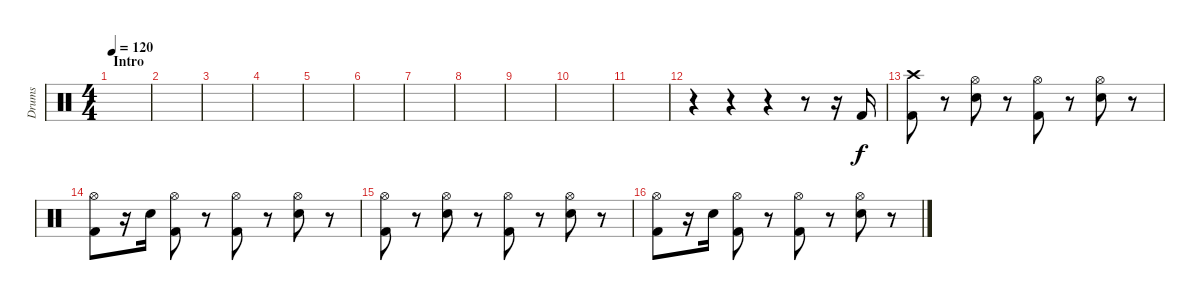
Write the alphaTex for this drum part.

\track ("Drums" "Drums") {instrument percussion}
\staff {score}
\articulation defaults
\ts (4 4)
\section ("" "Intro")
\tempo 120
\clef neutral
\ks c
|
|
|
|
|
|
|
|
|
|
|
r.4 r.4 r.4 r.8 r.16 "Kick (hit) 2".16 |
("Crash high (hit)" "Kick (hit) 2").8 r.8 ("Hi-Hat (open)" "Electric Snare (hit)").8 r.8 ("Hi-Hat (open)" "Kick (hit) 2").8 r.8 ("Hi-Hat (open)" "Electric Snare (hit)").8 r.8 |
("Hi-Hat (open)" "Kick (hit) 2").8 r.16 "Electric Snare (hit)".16 ("Hi-Hat (open)" "Kick (hit) 2").8 r.8 ("Hi-Hat (open)" "Kick (hit) 2").8 r.8 ("Hi-Hat (open)" "Electric Snare (hit)").8 r.8 |
("Hi-Hat (open)" "Kick (hit) 2").8 r.8 ("Hi-Hat (open)" "Electric Snare (hit)").8 r.8 ("Hi-Hat (open)" "Kick (hit) 2").8 r.8 ("Hi-Hat (open)" "Electric Snare (hit)").8 r.8 |
("Hi-Hat (open)" "Kick (hit) 2").8 r.16 "Electric Snare (hit)".16 ("Hi-Hat (open)" "Kick (hit) 2").8 r.8 ("Hi-Hat (open)" "Kick (hit) 2").8 r.8 ("Hi-Hat (open)" "Electric Snare (hit)").8 r.8
